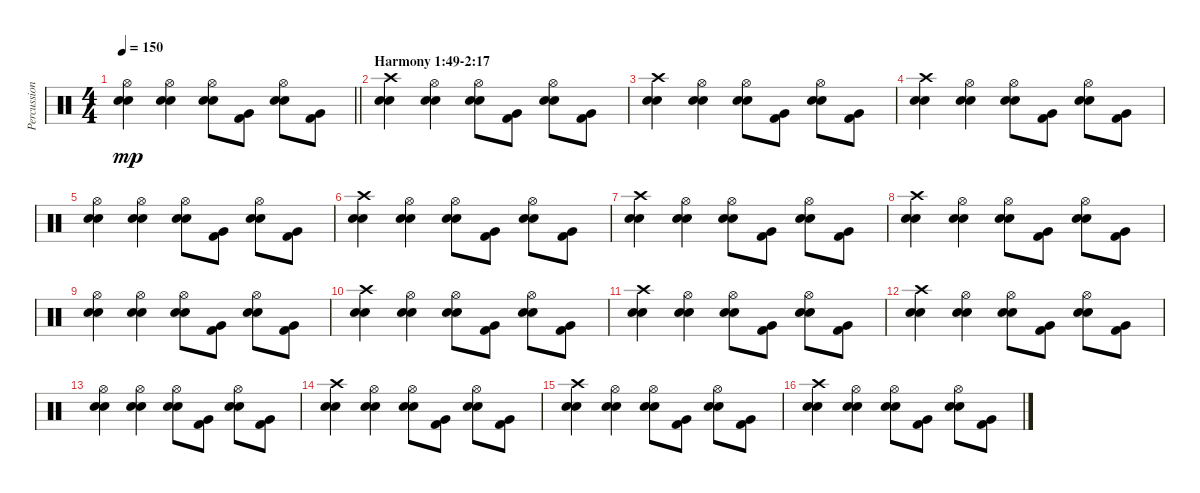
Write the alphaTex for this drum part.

\track ("Percussion" "Percussion") {instrument percussion}
\staff {score}
\articulation defaults
\ts (4 4)
\tempo 150
\clef neutral
\barLineRight lightlight
\ks c
("Electric Snare (hit)" "Snare (hit) 2" "Hi-Hat (open)").4{dy mp} ("Electric Snare (hit)" "Snare (hit) 2" "Hi-Hat (open)").4 ("Electric Snare (hit)" "Snare (hit) 2" "Hi-Hat (open)").8 ("Kick (hit) 2" "Very Low Tom (hit)").8 ("Electric Snare (hit)" "Snare (hit) 2" "Hi-Hat (open)").8 ("Kick (hit) 2" "Very Low Tom (hit)").8 |
\section ("" "Harmony 1:49-2:17")
("Electric Snare (hit)" "Snare (hit) 2" "Crash high (hit)").4 ("Electric Snare (hit)" "Snare (hit) 2" "Hi-Hat (open)").4 ("Electric Snare (hit)" "Snare (hit) 2" "Hi-Hat (open)").8 ("Kick (hit) 2" "Very Low Tom (hit)").8 ("Electric Snare (hit)" "Snare (hit) 2" "Hi-Hat (open)").8 ("Kick (hit) 2" "Very Low Tom (hit)").8 |
("Electric Snare (hit)" "Snare (hit) 2" "Crash high (hit)").4 ("Electric Snare (hit)" "Snare (hit) 2" "Hi-Hat (open)").4 ("Electric Snare (hit)" "Snare (hit) 2" "Hi-Hat (open)").8 ("Kick (hit) 2" "Very Low Tom (hit)").8 ("Electric Snare (hit)" "Snare (hit) 2" "Hi-Hat (open)").8 ("Kick (hit) 2" "Very Low Tom (hit)").8 |
("Electric Snare (hit)" "Snare (hit) 2" "Crash high (hit)").4 ("Electric Snare (hit)" "Snare (hit) 2" "Hi-Hat (open)").4 ("Electric Snare (hit)" "Snare (hit) 2" "Hi-Hat (open)").8 ("Kick (hit) 2" "Very Low Tom (hit)").8 ("Electric Snare (hit)" "Snare (hit) 2" "Hi-Hat (open)").8 ("Kick (hit) 2" "Very Low Tom (hit)").8 |
("Electric Snare (hit)" "Snare (hit) 2" "Hi-Hat (open)").4 ("Electric Snare (hit)" "Snare (hit) 2" "Hi-Hat (open)").4 ("Electric Snare (hit)" "Snare (hit) 2" "Hi-Hat (open)").8 ("Kick (hit) 2" "Very Low Tom (hit)").8 ("Electric Snare (hit)" "Snare (hit) 2" "Hi-Hat (open)").8 ("Kick (hit) 2" "Very Low Tom (hit)").8 |
("Electric Snare (hit)" "Snare (hit) 2" "Crash high (hit)").4 ("Electric Snare (hit)" "Snare (hit) 2" "Hi-Hat (open)").4 ("Electric Snare (hit)" "Snare (hit) 2" "Hi-Hat (open)").8 ("Kick (hit) 2" "Very Low Tom (hit)").8 ("Electric Snare (hit)" "Snare (hit) 2" "Hi-Hat (open)").8 ("Kick (hit) 2" "Very Low Tom (hit)").8 |
("Electric Snare (hit)" "Snare (hit) 2" "Crash high (hit)").4 ("Electric Snare (hit)" "Snare (hit) 2" "Hi-Hat (open)").4 ("Electric Snare (hit)" "Snare (hit) 2" "Hi-Hat (open)").8 ("Kick (hit) 2" "Very Low Tom (hit)").8 ("Electric Snare (hit)" "Snare (hit) 2" "Hi-Hat (open)").8 ("Kick (hit) 2" "Very Low Tom (hit)").8 |
("Electric Snare (hit)" "Snare (hit) 2" "Crash high (hit)").4 ("Electric Snare (hit)" "Snare (hit) 2" "Hi-Hat (open)").4 ("Electric Snare (hit)" "Snare (hit) 2" "Hi-Hat (open)").8 ("Kick (hit) 2" "Very Low Tom (hit)").8 ("Electric Snare (hit)" "Snare (hit) 2" "Hi-Hat (open)").8 ("Kick (hit) 2" "Very Low Tom (hit)").8 |
("Electric Snare (hit)" "Snare (hit) 2" "Hi-Hat (open)").4 ("Electric Snare (hit)" "Snare (hit) 2" "Hi-Hat (open)").4 ("Electric Snare (hit)" "Snare (hit) 2" "Hi-Hat (open)").8 ("Kick (hit) 2" "Very Low Tom (hit)").8 ("Electric Snare (hit)" "Snare (hit) 2" "Hi-Hat (open)").8 ("Kick (hit) 2" "Very Low Tom (hit)").8 |
("Electric Snare (hit)" "Snare (hit) 2" "Crash high (hit)").4 ("Electric Snare (hit)" "Snare (hit) 2" "Hi-Hat (open)").4 ("Electric Snare (hit)" "Snare (hit) 2" "Hi-Hat (open)").8 ("Kick (hit) 2" "Very Low Tom (hit)").8 ("Electric Snare (hit)" "Snare (hit) 2" "Hi-Hat (open)").8 ("Kick (hit) 2" "Very Low Tom (hit)").8 |
("Electric Snare (hit)" "Snare (hit) 2" "Crash high (hit)").4 ("Electric Snare (hit)" "Snare (hit) 2" "Hi-Hat (open)").4 ("Electric Snare (hit)" "Snare (hit) 2" "Hi-Hat (open)").8 ("Kick (hit) 2" "Very Low Tom (hit)").8 ("Electric Snare (hit)" "Snare (hit) 2" "Hi-Hat (open)").8 ("Kick (hit) 2" "Very Low Tom (hit)").8 |
("Electric Snare (hit)" "Snare (hit) 2" "Crash high (hit)").4 ("Electric Snare (hit)" "Snare (hit) 2" "Hi-Hat (open)").4 ("Electric Snare (hit)" "Snare (hit) 2" "Hi-Hat (open)").8 ("Kick (hit) 2" "Very Low Tom (hit)").8 ("Electric Snare (hit)" "Snare (hit) 2" "Hi-Hat (open)").8 ("Kick (hit) 2" "Very Low Tom (hit)").8 |
("Electric Snare (hit)" "Snare (hit) 2" "Hi-Hat (open)").4 ("Electric Snare (hit)" "Snare (hit) 2" "Hi-Hat (open)").4 ("Electric Snare (hit)" "Snare (hit) 2" "Hi-Hat (open)").8 ("Kick (hit) 2" "Very Low Tom (hit)").8 ("Electric Snare (hit)" "Snare (hit) 2" "Hi-Hat (open)").8 ("Kick (hit) 2" "Very Low Tom (hit)").8 |
("Electric Snare (hit)" "Snare (hit) 2" "Crash high (hit)").4 ("Electric Snare (hit)" "Snare (hit) 2" "Hi-Hat (open)").4 ("Electric Snare (hit)" "Snare (hit) 2" "Hi-Hat (open)").8 ("Kick (hit) 2" "Very Low Tom (hit)").8 ("Electric Snare (hit)" "Snare (hit) 2" "Hi-Hat (open)").8 ("Kick (hit) 2" "Very Low Tom (hit)").8 |
("Electric Snare (hit)" "Snare (hit) 2" "Crash high (hit)").4 ("Electric Snare (hit)" "Snare (hit) 2" "Hi-Hat (open)").4 ("Electric Snare (hit)" "Snare (hit) 2" "Hi-Hat (open)").8 ("Kick (hit) 2" "Very Low Tom (hit)").8 ("Electric Snare (hit)" "Snare (hit) 2" "Hi-Hat (open)").8 ("Kick (hit) 2" "Very Low Tom (hit)").8 |
("Electric Snare (hit)" "Snare (hit) 2" "Crash high (hit)").4 ("Electric Snare (hit)" "Snare (hit) 2" "Hi-Hat (open)").4 ("Electric Snare (hit)" "Snare (hit) 2" "Hi-Hat (open)").8 ("Kick (hit) 2" "Very Low Tom (hit)").8 ("Electric Snare (hit)" "Snare (hit) 2" "Hi-Hat (open)").8 ("Kick (hit) 2" "Very Low Tom (hit)").8
